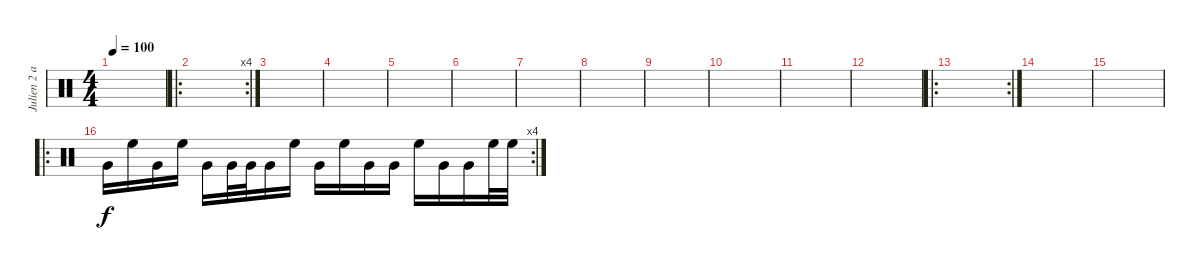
\track ("" "Julien 2 a") {instrument percussion}
\staff {score}
\articulation defaults
\ts (4 4)
\tempo 100
\clef neutral
\ks c
|
\ro
\rc 4
|
|
|
|
|
|
|
|
|
|
|
\ro
\rc 2
|
|
|
\ro
\rc 4 "Very Low Tom (hit)".16 "High Floor Tom (hit)".16 "Very Low Tom (hit)".16 "High Floor Tom (hit)".16 "Very Low Tom (hit)".16 "Very Low Tom (hit)".32 "Very Low Tom (hit)".32 "Very Low Tom (hit)".16 "High Floor Tom (hit)".16 "Very Low Tom (hit)".16 "High Floor Tom (hit)".16 "Very Low Tom (hit)".16 "Very Low Tom (hit)".16 "High Floor Tom (hit)".16 "Very Low Tom (hit)".16 "Very Low Tom (hit)".16 "High Floor Tom (hit)".32 "High Floor Tom (hit)".32
